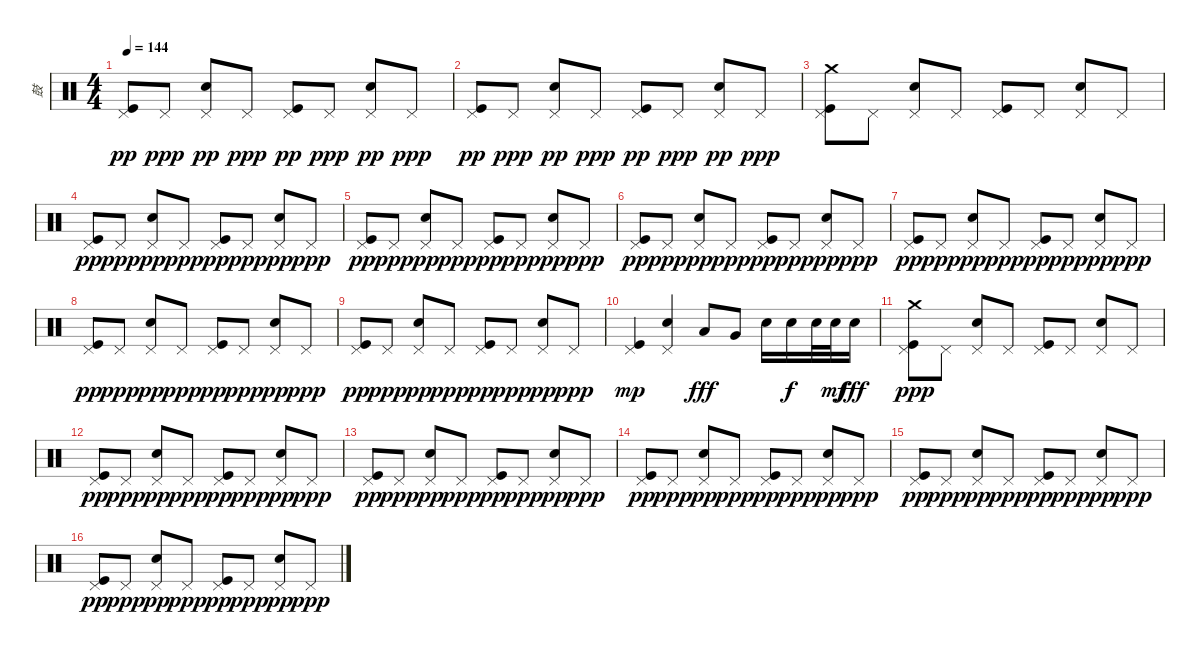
\track ("鼓" "鼓") {instrument percussion}
\staff {score}
\articulation defaults
\ts (4 4)
\tempo 144
\clef neutral
\ks c
("Kick (hit)" "Pedal Hi-Hat (hit)").8{dy pp} "Pedal Hi-Hat (hit)".8{dy ppp} ("Snare (hit) 2" "Pedal Hi-Hat (hit)").8{dy pp} "Pedal Hi-Hat (hit)".8{dy ppp} ("Kick (hit)" "Pedal Hi-Hat (hit)").8{dy pp} "Pedal Hi-Hat (hit)".8{dy ppp} ("Snare (hit) 2" "Pedal Hi-Hat (hit)").8{dy pp} "Pedal Hi-Hat (hit)".8{dy ppp} |
("Kick (hit)" "Pedal Hi-Hat (hit)").8{dy pp} "Pedal Hi-Hat (hit)".8{dy ppp} ("Snare (hit) 2" "Pedal Hi-Hat (hit)").8{dy pp} "Pedal Hi-Hat (hit)".8{dy ppp} ("Kick (hit)" "Pedal Hi-Hat (hit)").8{dy pp} "Pedal Hi-Hat (hit)".8{dy ppp} ("Snare (hit) 2" "Pedal Hi-Hat (hit)").8{dy pp} "Pedal Hi-Hat (hit)".8{dy ppp} |
("Crash medium (hit)" "Kick (hit)" "Pedal Hi-Hat (hit)").8 "Pedal Hi-Hat (hit)".8 ("Snare (hit) 2" "Pedal Hi-Hat (hit)").8 "Pedal Hi-Hat (hit)".8 ("Kick (hit)" "Pedal Hi-Hat (hit)").8 "Pedal Hi-Hat (hit)".8 ("Snare (hit) 2" "Pedal Hi-Hat (hit)").8 "Pedal Hi-Hat (hit)".8 |
("Kick (hit)" "Pedal Hi-Hat (hit)").8{dy pp} "Pedal Hi-Hat (hit)".8{dy ppp} ("Snare (hit) 2" "Pedal Hi-Hat (hit)").8{dy pp} "Pedal Hi-Hat (hit)".8{dy ppp} ("Kick (hit)" "Pedal Hi-Hat (hit)").8{dy pp} "Pedal Hi-Hat (hit)".8{dy ppp} ("Snare (hit) 2" "Pedal Hi-Hat (hit)").8{dy pp} "Pedal Hi-Hat (hit)".8{dy ppp} |
("Kick (hit)" "Pedal Hi-Hat (hit)").8{dy pp} "Pedal Hi-Hat (hit)".8{dy ppp} ("Snare (hit) 2" "Pedal Hi-Hat (hit)").8{dy pp} "Pedal Hi-Hat (hit)".8{dy ppp} ("Kick (hit)" "Pedal Hi-Hat (hit)").8{dy pp} "Pedal Hi-Hat (hit)".8{dy ppp} ("Snare (hit) 2" "Pedal Hi-Hat (hit)").8{dy pp} "Pedal Hi-Hat (hit)".8{dy ppp} |
("Kick (hit)" "Pedal Hi-Hat (hit)").8{dy pp} "Pedal Hi-Hat (hit)".8{dy ppp} ("Snare (hit) 2" "Pedal Hi-Hat (hit)").8{dy pp} "Pedal Hi-Hat (hit)".8{dy ppp} ("Kick (hit)" "Pedal Hi-Hat (hit)").8{dy pp} "Pedal Hi-Hat (hit)".8{dy ppp} ("Snare (hit) 2" "Pedal Hi-Hat (hit)").8{dy pp} "Pedal Hi-Hat (hit)".8{dy ppp} |
("Kick (hit)" "Pedal Hi-Hat (hit)").8{dy pp} "Pedal Hi-Hat (hit)".8{dy ppp} ("Snare (hit) 2" "Pedal Hi-Hat (hit)").8{dy pp} "Pedal Hi-Hat (hit)".8{dy ppp} ("Kick (hit)" "Pedal Hi-Hat (hit)").8{dy pp} "Pedal Hi-Hat (hit)".8{dy ppp} ("Snare (hit) 2" "Pedal Hi-Hat (hit)").8{dy pp} "Pedal Hi-Hat (hit)".8{dy ppp} |
("Kick (hit)" "Pedal Hi-Hat (hit)").8{dy pp} "Pedal Hi-Hat (hit)".8{dy ppp} ("Snare (hit) 2" "Pedal Hi-Hat (hit)").8{dy pp} "Pedal Hi-Hat (hit)".8{dy ppp} ("Kick (hit)" "Pedal Hi-Hat (hit)").8{dy pp} "Pedal Hi-Hat (hit)".8{dy ppp} ("Snare (hit) 2" "Pedal Hi-Hat (hit)").8{dy pp} "Pedal Hi-Hat (hit)".8{dy ppp} |
("Kick (hit)" "Pedal Hi-Hat (hit)").8{dy pp} "Pedal Hi-Hat (hit)".8{dy ppp} ("Snare (hit) 2" "Pedal Hi-Hat (hit)").8{dy pp} "Pedal Hi-Hat (hit)".8{dy ppp} ("Kick (hit)" "Pedal Hi-Hat (hit)").8{dy pp} "Pedal Hi-Hat (hit)".8{dy ppp} ("Snare (hit) 2" "Pedal Hi-Hat (hit)").8{dy pp} "Pedal Hi-Hat (hit)".8{dy ppp} |
("Kick (hit)" "Pedal Hi-Hat (hit)").4{dy mp} ("Snare (hit) 2" "Pedal Hi-Hat (hit)").4 "Low Tom (hit)".8{dy fff} "Very Low Tom (hit)".8 "Snare (hit) 2".16 "Snare (hit) 2".16{dy f} "Snare (hit) 2".32 "Snare (hit) 2".32{dy mf} "Snare (hit) 2".16{dy fff} |
("Crash medium (hit)" "Kick (hit)" "Pedal Hi-Hat (hit)").8{dy ppp} "Pedal Hi-Hat (hit)".8 ("Snare (hit) 2" "Pedal Hi-Hat (hit)").8 "Pedal Hi-Hat (hit)".8 ("Kick (hit)" "Pedal Hi-Hat (hit)").8 "Pedal Hi-Hat (hit)".8 ("Snare (hit) 2" "Pedal Hi-Hat (hit)").8 "Pedal Hi-Hat (hit)".8 |
("Kick (hit)" "Pedal Hi-Hat (hit)").8{dy pp} "Pedal Hi-Hat (hit)".8{dy ppp} ("Snare (hit) 2" "Pedal Hi-Hat (hit)").8{dy pp} "Pedal Hi-Hat (hit)".8{dy ppp} ("Kick (hit)" "Pedal Hi-Hat (hit)").8{dy pp} "Pedal Hi-Hat (hit)".8{dy ppp} ("Snare (hit) 2" "Pedal Hi-Hat (hit)").8{dy pp} "Pedal Hi-Hat (hit)".8{dy ppp} |
("Kick (hit)" "Pedal Hi-Hat (hit)").8{dy pp} "Pedal Hi-Hat (hit)".8{dy ppp} ("Snare (hit) 2" "Pedal Hi-Hat (hit)").8{dy pp} "Pedal Hi-Hat (hit)".8{dy ppp} ("Kick (hit)" "Pedal Hi-Hat (hit)").8{dy pp} "Pedal Hi-Hat (hit)".8{dy ppp} ("Snare (hit) 2" "Pedal Hi-Hat (hit)").8{dy pp} "Pedal Hi-Hat (hit)".8{dy ppp} |
("Kick (hit)" "Pedal Hi-Hat (hit)").8{dy pp} "Pedal Hi-Hat (hit)".8{dy ppp} ("Snare (hit) 2" "Pedal Hi-Hat (hit)").8{dy pp} "Pedal Hi-Hat (hit)".8{dy ppp} ("Kick (hit)" "Pedal Hi-Hat (hit)").8{dy pp} "Pedal Hi-Hat (hit)".8{dy ppp} ("Snare (hit) 2" "Pedal Hi-Hat (hit)").8{dy pp} "Pedal Hi-Hat (hit)".8{dy ppp} |
("Kick (hit)" "Pedal Hi-Hat (hit)").8{dy pp} "Pedal Hi-Hat (hit)".8{dy ppp} ("Snare (hit) 2" "Pedal Hi-Hat (hit)").8{dy pp} "Pedal Hi-Hat (hit)".8{dy ppp} ("Kick (hit)" "Pedal Hi-Hat (hit)").8{dy pp} "Pedal Hi-Hat (hit)".8{dy ppp} ("Snare (hit) 2" "Pedal Hi-Hat (hit)").8{dy pp} "Pedal Hi-Hat (hit)".8{dy ppp} |
("Kick (hit)" "Pedal Hi-Hat (hit)").8{dy pp} "Pedal Hi-Hat (hit)".8{dy ppp} ("Snare (hit) 2" "Pedal Hi-Hat (hit)").8{dy pp} "Pedal Hi-Hat (hit)".8{dy ppp} ("Kick (hit)" "Pedal Hi-Hat (hit)").8{dy pp} "Pedal Hi-Hat (hit)".8{dy ppp} ("Snare (hit) 2" "Pedal Hi-Hat (hit)").8{dy pp} "Pedal Hi-Hat (hit)".8{dy ppp}
